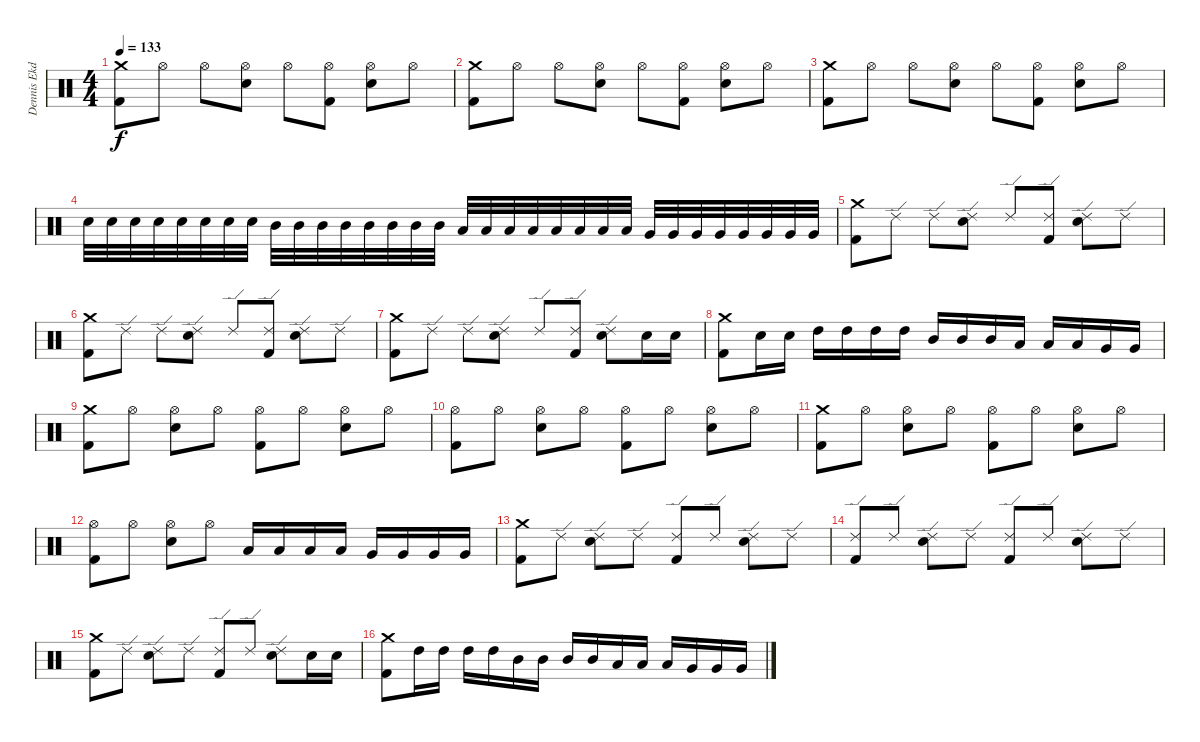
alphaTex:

\track ("Dennis Ekdahl" "Dennis Ekd") {instrument percussion}
\staff {score}
\articulation defaults
\ts (4 4)
\tempo 133
\clef neutral
\ks c
("Crash medium (hit)" "Kick (hit) 2").8{dy f} "Hi-Hat (open)".8 "Hi-Hat (open)".8 ("Hi-Hat (open)" "Snare (hit) 2").8 "Hi-Hat (open)".8 ("Hi-Hat (open)" "Kick (hit) 2").8 ("Hi-Hat (open)" "Snare (hit) 2").8 "Hi-Hat (open)".8 |
("Crash medium (hit)" "Kick (hit) 2").8 "Hi-Hat (open)".8 "Hi-Hat (open)".8 ("Hi-Hat (open)" "Snare (hit) 2").8 "Hi-Hat (open)".8 ("Hi-Hat (open)" "Kick (hit) 2").8 ("Hi-Hat (open)" "Snare (hit) 2").8 "Hi-Hat (open)".8 |
("Crash medium (hit)" "Kick (hit) 2").8 "Hi-Hat (open)".8 "Hi-Hat (open)".8 ("Hi-Hat (open)" "Snare (hit) 2").8 "Hi-Hat (open)".8 ("Hi-Hat (open)" "Kick (hit) 2").8 ("Hi-Hat (open)" "Snare (hit) 2").8 "Hi-Hat (open)".8 |
"Snare (hit) 2".32 "Snare (hit) 2".32 "Snare (hit) 2".32 "Snare (hit) 2".32 "Snare (hit) 2".32 "Snare (hit) 2".32 "Snare (hit) 2".32 "Snare (hit) 2".32 "Mid Tom (hit)".32 "Mid Tom (hit)".32 "Mid Tom (hit)".32 "Mid Tom (hit)".32 "Mid Tom (hit)".32 "Mid Tom (hit)".32 "Mid Tom (hit)".32 "Mid Tom (hit)".32 "Low Tom (hit)".32 "Low Tom (hit)".32 "Low Tom (hit)".32 "Low Tom (hit)".32 "Low Tom (hit)".32 "Low Tom (hit)".32 "Low Tom (hit)".32 "Low Tom (hit)".32 "Very Low Tom (hit)".32 "Very Low Tom (hit)".32 "Very Low Tom (hit)".32 "Very Low Tom (hit)".32 "Very Low Tom (hit)".32 "Very Low Tom (hit)".32 "Very Low Tom (hit)".32 "Very Low Tom (hit)".32 |
("Crash medium (hit)" "Kick (hit) 2").8 "Ride (edge) 2".8 "Ride (edge) 2".8 ("Ride (edge) 2" "Snare (hit) 2").8 "Ride (edge) 2".8 ("Ride (edge) 2" "Kick (hit) 2").8 ("Ride (edge) 2" "Snare (hit) 2").8 "Ride (edge) 2".8 |
("Crash medium (hit)" "Kick (hit) 2").8 "Ride (edge) 2".8 "Ride (edge) 2".8 ("Ride (edge) 2" "Snare (hit) 2").8 "Ride (edge) 2".8 ("Ride (edge) 2" "Kick (hit) 2").8 ("Ride (edge) 2" "Snare (hit) 2").8 "Ride (edge) 2".8 |
("Crash medium (hit)" "Kick (hit) 2").8 "Ride (edge) 2".8 "Ride (edge) 2".8 ("Ride (edge) 2" "Snare (hit) 2").8 "Ride (edge) 2".8 ("Ride (edge) 2" "Kick (hit) 2").8 ("Ride (edge) 2" "Snare (hit) 2").8 "Snare (hit) 2".16 "Snare (hit) 2".16 |
("Crash medium (hit)" "Kick (hit) 2").8 "Snare (hit) 2".16 "Snare (hit) 2".16 "High Tom (hit)".16 "High Tom (hit)".16 "High Tom (hit)".16 "High Tom (hit)".16 "Mid Tom (hit)".16 "Mid Tom (hit)".16 "Mid Tom (hit)".16 "Low Tom (hit)".16 "Low Tom (hit)".16 "Low Tom (hit)".16 "Very Low Tom (hit)".16 "Very Low Tom (hit)".16 |
("Crash medium (hit)" "Kick (hit) 2").8 "Hi-Hat (open)".8 ("Hi-Hat (open)" "Snare (hit) 2").8 "Hi-Hat (open)".8 ("Hi-Hat (open)" "Kick (hit) 2").8 "Hi-Hat (open)".8 ("Hi-Hat (open)" "Snare (hit) 2").8 "Hi-Hat (open)".8 |
("Hi-Hat (open)" "Kick (hit) 2").8 "Hi-Hat (open)".8 ("Hi-Hat (open)" "Snare (hit) 2").8 "Hi-Hat (open)".8 ("Hi-Hat (open)" "Kick (hit) 2").8 "Hi-Hat (open)".8 ("Hi-Hat (open)" "Snare (hit) 2").8 "Hi-Hat (open)".8 |
("Crash medium (hit)" "Kick (hit) 2").8 "Hi-Hat (open)".8 ("Hi-Hat (open)" "Snare (hit) 2").8 "Hi-Hat (open)".8 ("Hi-Hat (open)" "Kick (hit) 2").8 "Hi-Hat (open)".8 ("Hi-Hat (open)" "Snare (hit) 2").8 "Hi-Hat (open)".8 |
("Hi-Hat (open)" "Kick (hit) 2").8 "Hi-Hat (open)".8 ("Hi-Hat (open)" "Snare (hit) 2").8 "Hi-Hat (open)".8 "Low Tom (hit)".16 "Low Tom (hit)".16 "Low Tom (hit)".16 "Low Tom (hit)".16 "Very Low Tom (hit)".16 "Very Low Tom (hit)".16 "Very Low Tom (hit)".16 "Very Low Tom (hit)".16 |
("Crash medium (hit)" "Kick (hit) 2").8 "Ride (edge) 2".8 ("Ride (edge) 2" "Snare (hit) 2").8 "Ride (edge) 2".8 ("Ride (edge) 2" "Kick (hit) 2").8 "Ride (edge) 2".8 ("Ride (edge) 2" "Snare (hit) 2").8 "Ride (edge) 2".8 |
("Ride (edge) 2" "Kick (hit) 2").8 "Ride (edge) 2".8 ("Ride (edge) 2" "Snare (hit) 2").8 "Ride (edge) 2".8 ("Ride (edge) 2" "Kick (hit) 2").8 "Ride (edge) 2".8 ("Ride (edge) 2" "Snare (hit) 2").8 "Ride (edge) 2".8 |
("Crash medium (hit)" "Kick (hit) 2").8 "Ride (edge) 2".8 ("Ride (edge) 2" "Snare (hit) 2").8 "Ride (edge) 2".8 ("Ride (edge) 2" "Kick (hit) 2").8 "Ride (edge) 2".8 ("Ride (edge) 2" "Snare (hit) 2").8 "Snare (hit) 2".16 "Snare (hit) 2".16 |
("Crash medium (hit)" "Kick (hit) 2").8 "High Tom (hit)".16 "High Tom (hit)".16 "High Tom (hit)".16 "High Tom (hit)".16 "Mid Tom (hit)".16 "Mid Tom (hit)".16 "Mid Tom (hit)".16 "Mid Tom (hit)".16 "Low Tom (hit)".16 "Low Tom (hit)".16 "Low Tom (hit)".16 "Very Low Tom (hit)".16 "Very Low Tom (hit)".16 "Very Low Tom (hit)".16
